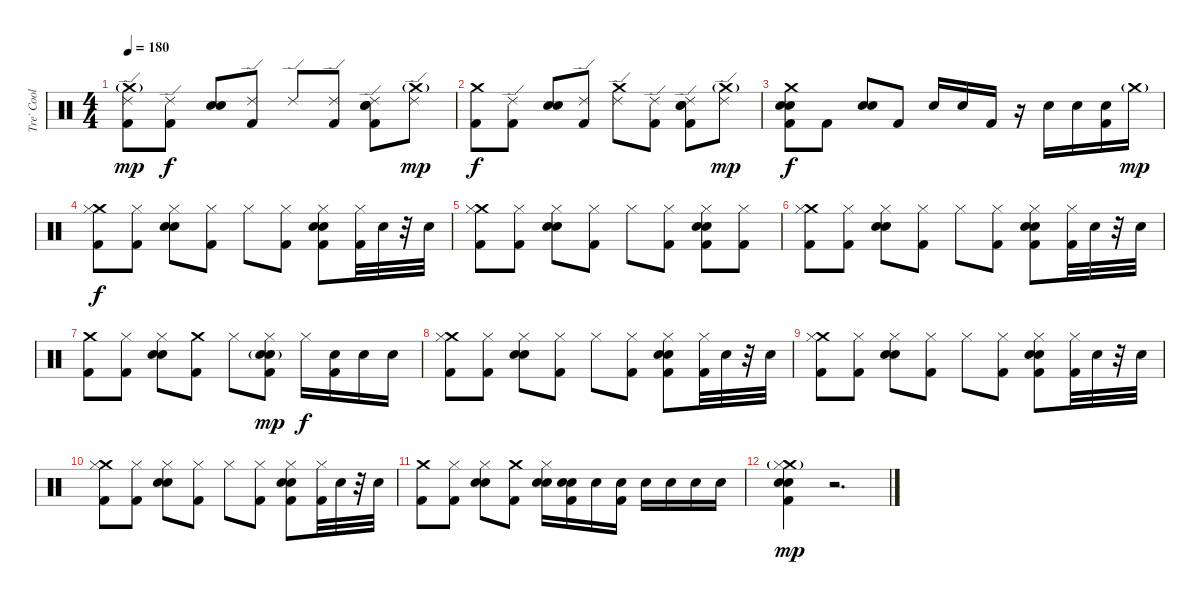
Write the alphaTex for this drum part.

\track ("Tre` Cool (Drums)" "Tre` Cool ") {instrument percussion}
\staff {score}
\articulation defaults
\ts (4 4)
\tempo 180
\clef neutral
\ks c
("Crash medium (hit)"{g} "Ride (edge) 2" "Kick (hit) 2").8{dy mp} ("Ride (edge) 2" "Kick (hit) 2").8{dy f} ("Snare (hit) 2" "Electric Snare (hit)").8 ("Ride (edge) 2" "Kick (hit) 2").8 "Ride (edge) 2".8 ("Ride (edge) 2" "Kick (hit) 2").8 ("Ride (edge) 2" "Snare (hit) 2" "Electric Snare (hit)" "Kick (hit) 2").8 ("Crash medium (hit)"{g} "Ride (edge) 2").8{dy mp} |
("Crash medium (hit)" "Kick (hit) 2").8{dy f} ("Ride (edge) 2" "Kick (hit) 2").8 ("Snare (hit) 2" "Electric Snare (hit)").8 ("Ride (edge) 2" "Kick (hit) 2").8 ("Crash medium (hit)" "Ride (edge) 2").8 ("Ride (edge) 2" "Kick (hit) 2").8 ("Ride (edge) 2" "Snare (hit) 2" "Electric Snare (hit)" "Kick (hit) 2").8 ("Crash medium (hit)"{g} "Ride (edge) 2").8{dy mp} |
("Crash medium (hit)" "Snare (hit) 2" "Electric Snare (hit)" "Kick (hit) 2").8{dy f} "Kick (hit) 2".8 ("Snare (hit) 2" "Electric Snare (hit)").8 "Kick (hit) 2".8 "Snare (hit) 2".16 "Snare (hit) 2".16 "Kick (hit) 2".16 r.16 "Snare (hit) 2".16 "Snare (hit) 2".16 ("Snare (hit) 2" "Kick (hit) 2").16 "Crash medium (hit)"{g}.16{dy mp} |
("Crash medium (hit)" "Hi-Hat (closed)" "Kick (hit) 2").8{dy f} ("Hi-Hat (closed)" "Kick (hit) 2").8 ("Hi-Hat (closed)" "Snare (hit) 2" "Electric Snare (hit)").8 ("Hi-Hat (closed)" "Kick (hit) 2").8 "Hi-Hat (closed)".8 ("Hi-Hat (closed)" "Kick (hit) 2").8 ("Hi-Hat (closed)" "Snare (hit) 2" "Electric Snare (hit)" "Kick (hit) 2").8 ("Hi-Hat (closed)" "Kick (hit) 2").32 "Snare (hit) 2".32 r.32 "Snare (hit) 2".32 |
("Crash medium (hit)" "Hi-Hat (closed)" "Kick (hit) 2").8 ("Hi-Hat (closed)" "Kick (hit) 2").8 ("Hi-Hat (closed)" "Snare (hit) 2" "Electric Snare (hit)").8 ("Hi-Hat (closed)" "Kick (hit) 2").8 "Hi-Hat (closed)".8 ("Hi-Hat (closed)" "Kick (hit) 2").8 ("Hi-Hat (closed)" "Snare (hit) 2" "Electric Snare (hit)" "Kick (hit) 2").8 ("Hi-Hat (closed)" "Kick (hit) 2").8 |
("Crash medium (hit)" "Hi-Hat (closed)" "Kick (hit) 2").8 ("Hi-Hat (closed)" "Kick (hit) 2").8 ("Hi-Hat (closed)" "Snare (hit) 2" "Electric Snare (hit)").8 ("Hi-Hat (closed)" "Kick (hit) 2").8 "Hi-Hat (closed)".8 ("Hi-Hat (closed)" "Kick (hit) 2").8 ("Hi-Hat (closed)" "Snare (hit) 2" "Electric Snare (hit)" "Kick (hit) 2").8 ("Hi-Hat (closed)" "Kick (hit) 2").32 "Snare (hit) 2".32 r.32 "Snare (hit) 2".32 |
("Crash medium (hit)" "Kick (hit) 2").8 ("Hi-Hat (closed)" "Kick (hit) 2").8 ("Hi-Hat (closed)" "Snare (hit) 2" "Electric Snare (hit)").8 ("Crash medium (hit)" "Kick (hit) 2").8 "Hi-Hat (closed)".8 ("Hi-Hat (closed)" "Snare (hit) 2"{g} "Electric Snare (hit)"{g} "Kick (hit) 2").8{dy mp} "Hi-Hat (closed)".16{dy f} ("Snare (hit) 2" "Kick (hit) 2").16 "Snare (hit) 2".16 "Snare (hit) 2".16 |
("Crash medium (hit)" "Hi-Hat (closed)" "Kick (hit) 2").8 ("Hi-Hat (closed)" "Kick (hit) 2").8 ("Hi-Hat (closed)" "Snare (hit) 2" "Electric Snare (hit)").8 ("Hi-Hat (closed)" "Kick (hit) 2").8 "Hi-Hat (closed)".8 ("Hi-Hat (closed)" "Kick (hit) 2").8 ("Hi-Hat (closed)" "Snare (hit) 2" "Electric Snare (hit)" "Kick (hit) 2").8 ("Hi-Hat (closed)" "Kick (hit) 2").32 "Snare (hit) 2".32 r.32 "Snare (hit) 2".32 |
("Crash medium (hit)" "Hi-Hat (closed)" "Kick (hit) 2").8 ("Hi-Hat (closed)" "Kick (hit) 2").8 ("Hi-Hat (closed)" "Snare (hit) 2" "Electric Snare (hit)").8 ("Hi-Hat (closed)" "Kick (hit) 2").8 "Hi-Hat (closed)".8 ("Hi-Hat (closed)" "Kick (hit) 2").8 ("Hi-Hat (closed)" "Snare (hit) 2" "Electric Snare (hit)" "Kick (hit) 2").8 ("Hi-Hat (closed)" "Kick (hit) 2").32 "Snare (hit) 2".32 r.32 "Snare (hit) 2".32 |
("Crash medium (hit)" "Hi-Hat (closed)" "Kick (hit) 2").8 ("Hi-Hat (closed)" "Kick (hit) 2").8 ("Hi-Hat (closed)" "Snare (hit) 2" "Electric Snare (hit)").8 ("Hi-Hat (closed)" "Kick (hit) 2").8 "Hi-Hat (closed)".8 ("Hi-Hat (closed)" "Kick (hit) 2").8 ("Hi-Hat (closed)" "Snare (hit) 2" "Electric Snare (hit)" "Kick (hit) 2").8 ("Hi-Hat (closed)" "Kick (hit) 2").32 "Snare (hit) 2".32 r.32 "Snare (hit) 2".32 |
("Crash medium (hit)" "Kick (hit) 2").8 ("Hi-Hat (closed)" "Kick (hit) 2").8 ("Hi-Hat (closed)" "Snare (hit) 2" "Electric Snare (hit)").8 ("Crash medium (hit)" "Kick (hit) 2").8 ("Hi-Hat (closed)" "Snare (hit) 2" "Electric Snare (hit)").16 ("Snare (hit) 2" "Electric Snare (hit)" "Kick (hit) 2").16 "Snare (hit) 2".16 ("Snare (hit) 2" "Kick (hit) 2").16 "Snare (hit) 2".16 "Snare (hit) 2".16 "Snare (hit) 2".16 "Snare (hit) 2".16 |
("Crash medium (hit)"{g} "Hi-Hat (closed)"{g} "Snare (hit) 2" "Electric Snare (hit)" "Kick (hit) 2").4{dy mp} r.2{d}
